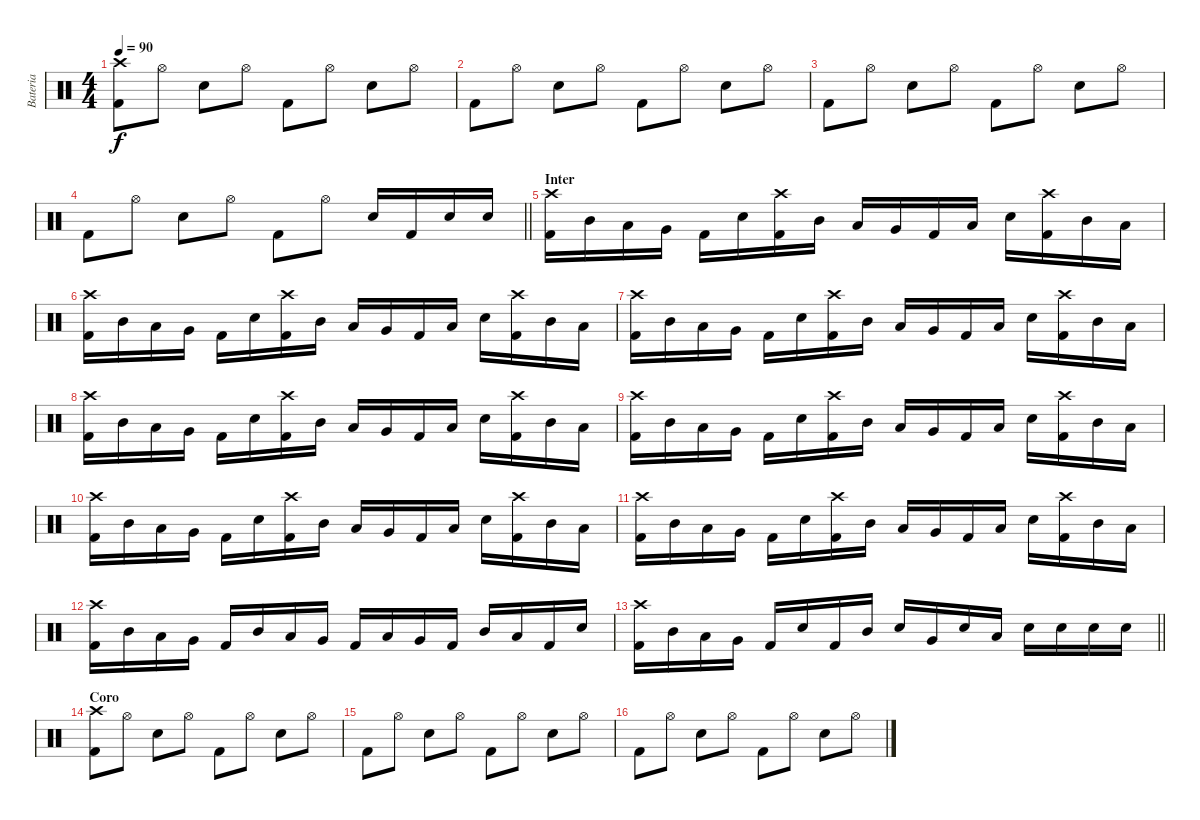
\track ("Bateria" "Bateria") {instrument percussion}
\staff {score}
\articulation defaults
\ts (4 4)
\tempo 90
\clef neutral
\ks c
("Kick (hit) 2" "Crash high (hit)").8{dy f} "Hi-Hat (open)".8 "Snare (hit) 2".8 "Hi-Hat (open)".8 "Kick (hit) 2".8 "Hi-Hat (open)".8 "Snare (hit) 2".8 "Hi-Hat (open)".8 |
"Kick (hit) 2".8 "Hi-Hat (open)".8 "Snare (hit) 2".8 "Hi-Hat (open)".8 "Kick (hit) 2".8 "Hi-Hat (open)".8 "Snare (hit) 2".8 "Hi-Hat (open)".8 |
"Kick (hit) 2".8 "Hi-Hat (open)".8 "Snare (hit) 2".8 "Hi-Hat (open)".8 "Kick (hit) 2".8 "Hi-Hat (open)".8 "Snare (hit) 2".8 "Hi-Hat (open)".8 |
\barLineRight lightlight "Kick (hit) 2".8 "Hi-Hat (open)".8 "Snare (hit) 2".8 "Hi-Hat (open)".8 "Kick (hit) 2".8 "Hi-Hat (open)".8 "Snare (hit) 2".16 "Kick (hit) 2".16 "Snare (hit) 2".16 "Snare (hit) 2".16
|
\section ("" "Inter")
("Kick (hit) 2" "Crash high (hit)").16 "Mid Tom (hit)".16 "Low Tom (hit)".16 "Very Low Tom (hit)".16 "Kick (hit) 2".16 "Snare (hit) 2".16 ("Kick (hit) 2" "Crash high (hit)").16 "Mid Tom (hit)".16 "Low Tom (hit)".16 "Very Low Tom (hit)".16 "Kick (hit) 2".16 "Low Tom (hit)".16 "Snare (hit) 2".16 ("Kick (hit) 2" "Crash high (hit)").16 "Mid Tom (hit)".16 "Low Tom (hit)".16 |
("Kick (hit) 2" "Crash high (hit)").16 "Mid Tom (hit)".16 "Low Tom (hit)".16 "Very Low Tom (hit)".16 "Kick (hit) 2".16 "Snare (hit) 2".16 ("Kick (hit) 2" "Crash high (hit)").16 "Mid Tom (hit)".16 "Low Tom (hit)".16 "Very Low Tom (hit)".16 "Kick (hit) 2".16 "Low Tom (hit)".16 "Snare (hit) 2".16 ("Kick (hit) 2" "Crash high (hit)").16 "Mid Tom (hit)".16 "Low Tom (hit)".16 |
("Kick (hit) 2" "Crash high (hit)").16 "Mid Tom (hit)".16 "Low Tom (hit)".16 "Very Low Tom (hit)".16 "Kick (hit) 2".16 "Snare (hit) 2".16 ("Kick (hit) 2" "Crash high (hit)").16 "Mid Tom (hit)".16 "Low Tom (hit)".16 "Very Low Tom (hit)".16 "Kick (hit) 2".16 "Low Tom (hit)".16 "Snare (hit) 2".16 ("Kick (hit) 2" "Crash high (hit)").16 "Mid Tom (hit)".16 "Low Tom (hit)".16 |
("Kick (hit) 2" "Crash high (hit)").16 "Mid Tom (hit)".16 "Low Tom (hit)".16 "Very Low Tom (hit)".16 "Kick (hit) 2".16 "Snare (hit) 2".16 ("Kick (hit) 2" "Crash high (hit)").16 "Mid Tom (hit)".16 "Low Tom (hit)".16 "Very Low Tom (hit)".16 "Kick (hit) 2".16 "Low Tom (hit)".16 "Snare (hit) 2".16 ("Kick (hit) 2" "Crash high (hit)").16 "Mid Tom (hit)".16 "Low Tom (hit)".16 |
("Kick (hit) 2" "Crash high (hit)").16 "Mid Tom (hit)".16 "Low Tom (hit)".16 "Very Low Tom (hit)".16 "Kick (hit) 2".16 "Snare (hit) 2".16 ("Kick (hit) 2" "Crash high (hit)").16 "Mid Tom (hit)".16 "Low Tom (hit)".16 "Very Low Tom (hit)".16 "Kick (hit) 2".16 "Low Tom (hit)".16 "Snare (hit) 2".16 ("Kick (hit) 2" "Crash high (hit)").16 "Mid Tom (hit)".16 "Low Tom (hit)".16 |
("Kick (hit) 2" "Crash high (hit)").16 "Mid Tom (hit)".16 "Low Tom (hit)".16 "Very Low Tom (hit)".16 "Kick (hit) 2".16 "Snare (hit) 2".16 ("Kick (hit) 2" "Crash high (hit)").16 "Mid Tom (hit)".16 "Low Tom (hit)".16 "Very Low Tom (hit)".16 "Kick (hit) 2".16 "Low Tom (hit)".16 "Snare (hit) 2".16 ("Kick (hit) 2" "Crash high (hit)").16 "Mid Tom (hit)".16 "Low Tom (hit)".16 |
("Kick (hit) 2" "Crash high (hit)").16 "Mid Tom (hit)".16 "Low Tom (hit)".16 "Very Low Tom (hit)".16 "Kick (hit) 2".16 "Snare (hit) 2".16 ("Kick (hit) 2" "Crash high (hit)").16 "Mid Tom (hit)".16 "Low Tom (hit)".16 "Very Low Tom (hit)".16 "Kick (hit) 2".16 "Low Tom (hit)".16 "Snare (hit) 2".16 ("Kick (hit) 2" "Crash high (hit)").16 "Mid Tom (hit)".16 "Low Tom (hit)".16 |
("Kick (hit) 2" "Crash high (hit)").16 "Mid Tom (hit)".16 "Low Tom (hit)".16 "Very Low Tom (hit)".16 "Kick (hit) 2".16 "Mid Tom (hit)".16 "Low Tom (hit)".16 "Very Low Tom (hit)".16 "Kick (hit) 2".16 "Low Tom (hit)".16 "Very Low Tom (hit)".16 "Kick (hit) 2".16 "Mid Tom (hit)".16 "Low Tom (hit)".16 "Kick (hit) 2".16 "Snare (hit) 2".16 |
\barLineRight lightlight
("Kick (hit) 2" "Crash high (hit)").16 "Mid Tom (hit)".16 "Low Tom (hit)".16 "Very Low Tom (hit)".16 "Kick (hit) 2".16 "Snare (hit) 2".16 "Kick (hit) 2".16 "Mid Tom (hit)".16 "Snare (hit) 2".16 "Very Low Tom (hit)".16 "Snare (hit) 2".16 "Low Tom (hit)".16 "Snare (hit) 2".16 "Snare (hit) 2".16 "Snare (hit) 2".16 "Snare (hit) 2".16 |
\section ("" "Coro")
("Kick (hit) 2" "Crash high (hit)").8 "Hi-Hat (open)".8 "Snare (hit) 2".8 "Hi-Hat (open)".8 "Kick (hit) 2".8 "Hi-Hat (open)".8 "Snare (hit) 2".8 "Hi-Hat (open)".8 |
"Kick (hit) 2".8 "Hi-Hat (open)".8 "Snare (hit) 2".8 "Hi-Hat (open)".8 "Kick (hit) 2".8 "Hi-Hat (open)".8 "Snare (hit) 2".8 "Hi-Hat (open)".8 |
"Kick (hit) 2".8 "Hi-Hat (open)".8 "Snare (hit) 2".8 "Hi-Hat (open)".8 "Kick (hit) 2".8 "Hi-Hat (open)".8 "Snare (hit) 2".8 "Hi-Hat (open)".8
